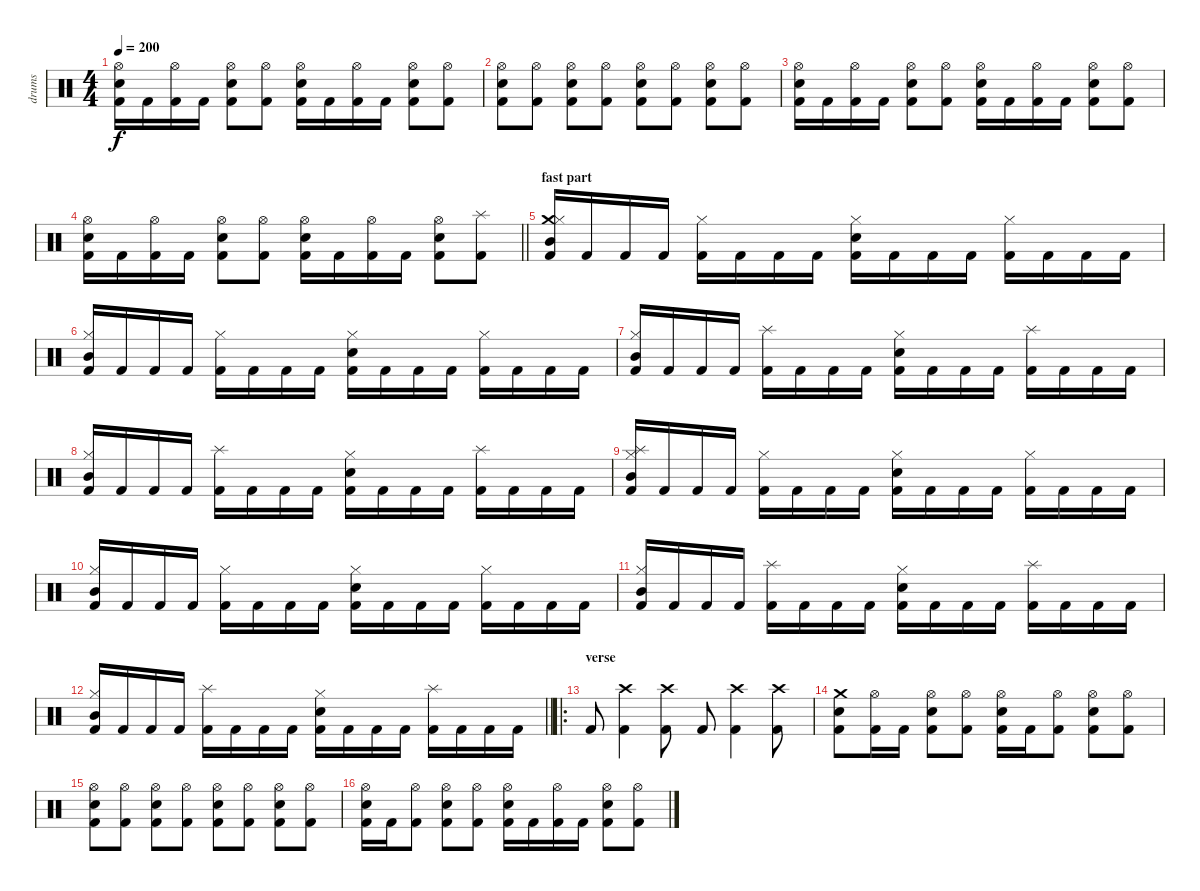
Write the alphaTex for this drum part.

\track ("drums" "drums") {instrument percussion}
\staff {score}
\articulation defaults
\ts (4 4)
\tempo 200
\clef neutral
\ks c
("Hi-Hat (open)" "Snare (hit) 2" "Kick (hit) 2").16{dy f} "Kick (hit) 2".16 ("Hi-Hat (open)" "Kick (hit) 2").16 "Kick (hit) 2".16 ("Hi-Hat (open)" "Snare (hit) 2" "Kick (hit) 2").8 ("Hi-Hat (open)" "Kick (hit) 2").8 ("Hi-Hat (open)" "Snare (hit) 2" "Kick (hit) 2").16 "Kick (hit) 2".16 ("Hi-Hat (open)" "Kick (hit) 2").16 "Kick (hit) 2".16 ("Hi-Hat (open)" "Snare (hit) 2" "Kick (hit) 2").8 ("Hi-Hat (open)" "Kick (hit) 2").8 |
("Hi-Hat (open)" "Snare (hit) 2" "Kick (hit) 2").8 ("Hi-Hat (open)" "Kick (hit) 2").8 ("Hi-Hat (open)" "Snare (hit) 2" "Kick (hit) 2").8 ("Hi-Hat (open)" "Kick (hit) 2").8 ("Hi-Hat (open)" "Snare (hit) 2" "Kick (hit) 2").8 ("Hi-Hat (open)" "Kick (hit) 2").8 ("Hi-Hat (open)" "Snare (hit) 2" "Kick (hit) 2").8 ("Hi-Hat (open)" "Kick (hit) 2").8 |
("Hi-Hat (open)" "Snare (hit) 2" "Kick (hit) 2").16 "Kick (hit) 2".16 ("Hi-Hat (open)" "Kick (hit) 2").16 "Kick (hit) 2".16 ("Hi-Hat (open)" "Snare (hit) 2" "Kick (hit) 2").8 ("Hi-Hat (open)" "Kick (hit) 2").8 ("Hi-Hat (open)" "Snare (hit) 2" "Kick (hit) 2").16 "Kick (hit) 2".16 ("Hi-Hat (open)" "Kick (hit) 2").16 "Kick (hit) 2".16 ("Hi-Hat (open)" "Snare (hit) 2" "Kick (hit) 2").8 ("Hi-Hat (open)" "Kick (hit) 2").8 |
\barLineRight lightlight
("Hi-Hat (open)" "Snare (hit) 2" "Kick (hit) 2").16 "Kick (hit) 2".16 ("Hi-Hat (open)" "Kick (hit) 2").16 "Kick (hit) 2".16 ("Hi-Hat (open)" "Snare (hit) 2" "Kick (hit) 2").8 ("Hi-Hat (open)" "Kick (hit) 2").8 ("Hi-Hat (open)" "Snare (hit) 2" "Kick (hit) 2").16 "Kick (hit) 2".16 ("Hi-Hat (open)" "Kick (hit) 2").16 "Kick (hit) 2".16 ("Hi-Hat (open)" "Snare (hit) 2" "Kick (hit) 2").8 ("Splash (hit)" "Kick (hit) 2").8 |
\section ("" "fast part")
("Crash medium (hit)" "Hi-Hat (closed)" "Mid Tom (hit)" "Kick (hit) 2").16 "Kick (hit) 2".16 "Kick (hit) 2".16 "Kick (hit) 2".16 ("Hi-Hat (closed)" "Kick (hit) 2").16 "Kick (hit) 2".16 "Kick (hit) 2".16 "Kick (hit) 2".16 ("Hi-Hat (closed)" "Snare (hit) 2" "Kick (hit) 2").16 "Kick (hit) 2".16 "Kick (hit) 2".16 "Kick (hit) 2".16 ("Hi-Hat (closed)" "Kick (hit) 2").16 "Kick (hit) 2".16 "Kick (hit) 2".16 "Kick (hit) 2".16 |
("Hi-Hat (closed)" "Mid Tom (hit)" "Kick (hit) 2").16 "Kick (hit) 2".16 "Kick (hit) 2".16 "Kick (hit) 2".16 ("Hi-Hat (closed)" "Kick (hit) 2").16 "Kick (hit) 2".16 "Kick (hit) 2".16 "Kick (hit) 2".16 ("Hi-Hat (closed)" "Snare (hit) 2" "Kick (hit) 2").16 "Kick (hit) 2".16 "Kick (hit) 2".16 "Kick (hit) 2".16 ("Hi-Hat (closed)" "Kick (hit) 2").16 "Kick (hit) 2".16 "Kick (hit) 2".16 "Kick (hit) 2".16 |
("Hi-Hat (closed)" "Mid Tom (hit)" "Kick (hit) 2").16 "Kick (hit) 2".16 "Kick (hit) 2".16 "Kick (hit) 2".16 ("Splash (hit)" "Kick (hit) 2").16 "Kick (hit) 2".16 "Kick (hit) 2".16 "Kick (hit) 2".16 ("Hi-Hat (closed)" "Snare (hit) 2" "Kick (hit) 2").16 "Kick (hit) 2".16 "Kick (hit) 2".16 "Kick (hit) 2".16 ("Splash (hit)" "Kick (hit) 2").16 "Kick (hit) 2".16 "Kick (hit) 2".16 "Kick (hit) 2".16 |
("Hi-Hat (closed)" "Mid Tom (hit)" "Kick (hit) 2").16 "Kick (hit) 2".16 "Kick (hit) 2".16 "Kick (hit) 2".16 ("Splash (hit)" "Kick (hit) 2").16 "Kick (hit) 2".16 "Kick (hit) 2".16 "Kick (hit) 2".16 ("Hi-Hat (closed)" "Snare (hit) 2" "Kick (hit) 2").16 "Kick (hit) 2".16 "Kick (hit) 2".16 "Kick (hit) 2".16 ("Splash (hit)" "Kick (hit) 2").16 "Kick (hit) 2".16 "Kick (hit) 2".16 "Kick (hit) 2".16 |
("Splash (hit)" "Hi-Hat (closed)" "Mid Tom (hit)" "Kick (hit) 2").16 "Kick (hit) 2".16 "Kick (hit) 2".16 "Kick (hit) 2".16 ("Hi-Hat (closed)" "Kick (hit) 2").16 "Kick (hit) 2".16 "Kick (hit) 2".16 "Kick (hit) 2".16 ("Hi-Hat (closed)" "Snare (hit) 2" "Kick (hit) 2").16 "Kick (hit) 2".16 "Kick (hit) 2".16 "Kick (hit) 2".16 ("Hi-Hat (closed)" "Kick (hit) 2").16 "Kick (hit) 2".16 "Kick (hit) 2".16 "Kick (hit) 2".16 |
("Hi-Hat (closed)" "Mid Tom (hit)" "Kick (hit) 2").16 "Kick (hit) 2".16 "Kick (hit) 2".16 "Kick (hit) 2".16 ("Hi-Hat (closed)" "Kick (hit) 2").16 "Kick (hit) 2".16 "Kick (hit) 2".16 "Kick (hit) 2".16 ("Hi-Hat (closed)" "Snare (hit) 2" "Kick (hit) 2").16 "Kick (hit) 2".16 "Kick (hit) 2".16 "Kick (hit) 2".16 ("Hi-Hat (closed)" "Kick (hit) 2").16 "Kick (hit) 2".16 "Kick (hit) 2".16 "Kick (hit) 2".16 |
("Hi-Hat (closed)" "Mid Tom (hit)" "Kick (hit) 2").16 "Kick (hit) 2".16 "Kick (hit) 2".16 "Kick (hit) 2".16 ("Splash (hit)" "Kick (hit) 2").16 "Kick (hit) 2".16 "Kick (hit) 2".16 "Kick (hit) 2".16 ("Hi-Hat (closed)" "Snare (hit) 2" "Kick (hit) 2").16 "Kick (hit) 2".16 "Kick (hit) 2".16 "Kick (hit) 2".16 ("Splash (hit)" "Kick (hit) 2").16 "Kick (hit) 2".16 "Kick (hit) 2".16 "Kick (hit) 2".16 |
\barLineRight lightlight
("Hi-Hat (closed)" "Mid Tom (hit)" "Kick (hit) 2").16 "Kick (hit) 2".16 "Kick (hit) 2".16 "Kick (hit) 2".16 ("Splash (hit)" "Kick (hit) 2").16 "Kick (hit) 2".16 "Kick (hit) 2".16 "Kick (hit) 2".16 ("Hi-Hat (closed)" "Snare (hit) 2" "Kick (hit) 2").16 "Kick (hit) 2".16 "Kick (hit) 2".16 "Kick (hit) 2".16 ("Splash (hit)" "Kick (hit) 2").16 "Kick (hit) 2".16 "Kick (hit) 2".16 "Kick (hit) 2".16 |
\ro
\section ("" "verse")
"Kick (hit) 2".8 ("Crash high (hit)" "Kick (hit) 2").4 ("Crash high (hit)" "Kick (hit) 2").8 "Kick (hit) 2".8 ("Crash high (hit)" "Kick (hit) 2").4 ("Crash high (hit)" "Kick (hit) 2").8 |
("Crash medium (hit)" "Snare (hit) 2" "Kick (hit) 2").8 ("Hi-Hat (open)" "Kick (hit) 2").16 "Kick (hit) 2".16 ("Hi-Hat (open)" "Snare (hit) 2" "Kick (hit) 2").8 ("Hi-Hat (open)" "Kick (hit) 2").8 ("Hi-Hat (open)" "Snare (hit) 2" "Kick (hit) 2").16 "Kick (hit) 2".16 ("Hi-Hat (open)" "Kick (hit) 2").8 ("Hi-Hat (open)" "Snare (hit) 2" "Kick (hit) 2").8 ("Hi-Hat (open)" "Kick (hit) 2").8 |
("Hi-Hat (open)" "Snare (hit) 2" "Kick (hit) 2").8 ("Hi-Hat (open)" "Kick (hit) 2").8 ("Hi-Hat (open)" "Snare (hit) 2" "Kick (hit) 2").8 ("Hi-Hat (open)" "Kick (hit) 2").8 ("Hi-Hat (open)" "Snare (hit) 2" "Kick (hit) 2").8 ("Hi-Hat (open)" "Kick (hit) 2").8 ("Hi-Hat (open)" "Snare (hit) 2" "Kick (hit) 2").8 ("Hi-Hat (open)" "Kick (hit) 2").8 |
("Hi-Hat (open)" "Snare (hit) 2" "Kick (hit) 2").16 "Kick (hit) 2".16 ("Hi-Hat (open)" "Kick (hit) 2").8 ("Hi-Hat (open)" "Snare (hit) 2" "Kick (hit) 2").8 ("Hi-Hat (open)" "Kick (hit) 2").8 ("Hi-Hat (open)" "Snare (hit) 2" "Kick (hit) 2").16 "Kick (hit) 2".16 ("Hi-Hat (open)" "Kick (hit) 2").16 "Kick (hit) 2".16 ("Hi-Hat (open)" "Snare (hit) 2" "Kick (hit) 2").8 ("Hi-Hat (open)" "Kick (hit) 2").8
